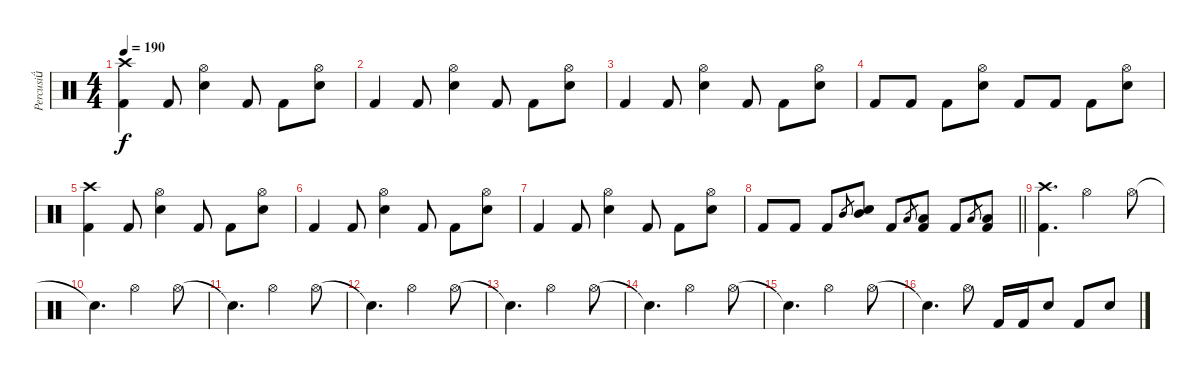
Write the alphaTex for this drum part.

\track ("Percusi" "Percusi") {instrument percussion}
\staff {score}
\articulation defaults
\ts (4 4)
\tempo 190
\clef neutral
\ks c
("Crash high (hit)" "Kick (hit) 2").4{dy f} "Kick (hit) 2".8 ("Hi-Hat (open)" "Electric Snare (hit)").4 "Kick (hit) 2".8 "Kick (hit) 2".8 ("Hi-Hat (open)" "Electric Snare (hit)").8 |
"Kick (hit) 2".4 "Kick (hit) 2".8 ("Hi-Hat (open)" "Electric Snare (hit)").4 "Kick (hit) 2".8 "Kick (hit) 2".8 ("Hi-Hat (open)" "Electric Snare (hit)").8 |
"Kick (hit) 2".4 "Kick (hit) 2".8 ("Hi-Hat (open)" "Electric Snare (hit)").4 "Kick (hit) 2".8 "Kick (hit) 2".8 ("Hi-Hat (open)" "Electric Snare (hit)").8 |
"Kick (hit) 2".8 "Kick (hit) 2".8 "Kick (hit) 2".8 ("Hi-Hat (open)" "Electric Snare (hit)").8 "Kick (hit) 2".8 "Kick (hit) 2".8 "Kick (hit) 2".8 ("Hi-Hat (open)" "Electric Snare (hit)").8 |
("Crash high (hit)" "Kick (hit) 2").4 "Kick (hit) 2".8 ("Hi-Hat (open)" "Electric Snare (hit)").4 "Kick (hit) 2".8 "Kick (hit) 2".8 ("Hi-Hat (open)" "Electric Snare (hit)").8 |
"Kick (hit) 2".4 "Kick (hit) 2".8 ("Hi-Hat (open)" "Electric Snare (hit)").4 "Kick (hit) 2".8 "Kick (hit) 2".8 ("Hi-Hat (open)" "Electric Snare (hit)").8 |
"Kick (hit) 2".4 "Kick (hit) 2".8 ("Hi-Hat (open)" "Electric Snare (hit)").4 "Kick (hit) 2".8 "Kick (hit) 2".8 ("Hi-Hat (open)" "Electric Snare (hit)").8 |
\barLineRight lightlight "Kick (hit) 2".8 "Kick (hit) 2".8 "Kick (hit) 2".8 "Mid Tom (hit)".8{gr}
("Mid Tom (hit)" "Electric Snare (hit)").8 "Kick (hit) 2".8 "Low Tom (hit)".8{gr} ("Low Tom (hit)" "Kick (hit) 2").8 "Kick (hit) 2".8 "Low Floor Tom (hit)".8{gr} ("Low Floor Tom (hit)" "Kick (hit) 2").8 |
("Crash high (hit)" "Kick (hit) 2").4{d} "Hi-Hat (open)".2 "Hi-Hat (open)".8 |
"Snare (hit)"{t}.4{d} "Hi-Hat (open)".2 "Hi-Hat (open)".8 |
"Snare (hit)"{t}.4{d} "Hi-Hat (open)".2 "Hi-Hat (open)".8 |
"Snare (hit)"{t}.4{d} "Hi-Hat (open)".2 "Hi-Hat (open)".8 |
"Snare (hit)"{t}.4{d} "Hi-Hat (open)".2 "Hi-Hat (open)".8 |
"Snare (hit)"{t}.4{d} "Hi-Hat (open)".2 "Hi-Hat (open)".8 |
"Snare (hit)"{t}.4{d} "Hi-Hat (open)".2 "Hi-Hat (open)".8 |
"Snare (hit)"{t}.4{d} "Hi-Hat (open)".8 "Kick (hit) 2".16 "Kick (hit) 2".16 "Electric Snare (hit)".8 "Kick (hit) 2".8 "Electric Snare (hit)".8
